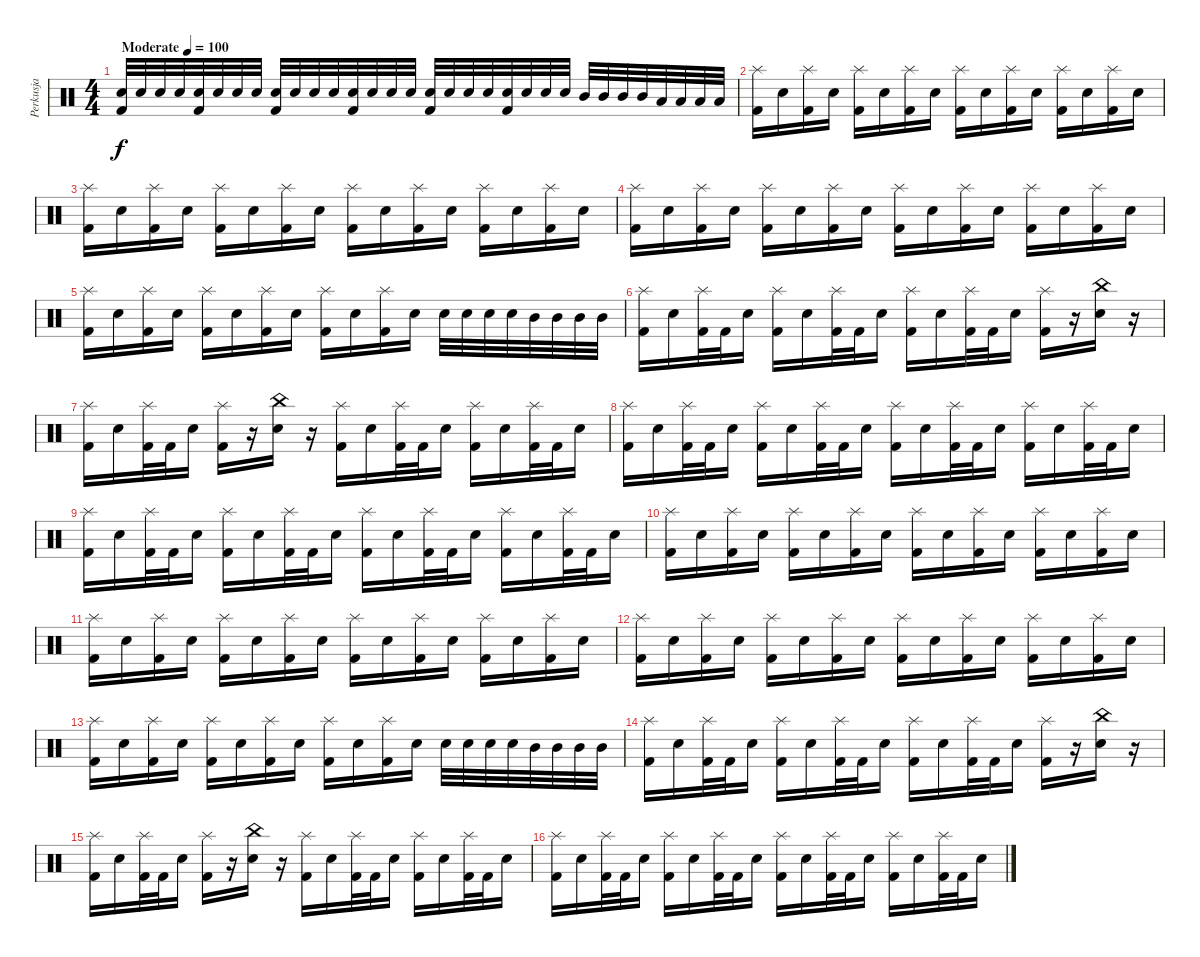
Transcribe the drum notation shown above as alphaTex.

\track ("Perkusja" "Perkusja") {instrument percussion}
\staff {score}
\articulation defaults
\ts (4 4)
\tempo (100 "Moderate")
\clef neutral
\ks c
("Snare (hit) 2" "Kick (hit) 2").32{dy f} "Snare (hit) 2".32 "Snare (hit) 2".32 "Snare (hit) 2".32 ("Snare (hit) 2" "Kick (hit) 2").32 "Snare (hit) 2".32 "Snare (hit) 2".32 "Snare (hit) 2".32 ("Snare (hit) 2" "Kick (hit) 2").32 "Snare (hit) 2".32 "Snare (hit) 2".32 "Snare (hit) 2".32 ("Snare (hit) 2" "Kick (hit) 2").32 "Snare (hit) 2".32 "Snare (hit) 2".32 "Snare (hit) 2".32 ("Snare (hit) 2" "Kick (hit) 2").32 "Snare (hit) 2".32 "Snare (hit) 2".32 "Snare (hit) 2".32 ("Snare (hit) 2" "Kick (hit) 2").32 "Snare (hit) 2".32 "Snare (hit) 2".32 "Snare (hit) 2".32 "Mid Tom (hit)".32 "Mid Tom (hit)".32 "Mid Tom (hit)".32 "Mid Tom (hit)".32 "Low Tom (hit)".32 "Low Tom (hit)".32 "Low Tom (hit)".32 "Low Tom (hit)".32 |
("Splash (hit)" "Kick (hit) 2").16 "Snare (hit) 2".16 ("Splash (hit)" "Kick (hit) 2").16 "Snare (hit) 2".16 ("Splash (hit)" "Kick (hit) 2").16 "Snare (hit) 2".16 ("Splash (hit)" "Kick (hit) 2").16 "Snare (hit) 2".16 ("Splash (hit)" "Kick (hit) 2").16 "Snare (hit) 2".16 ("Splash (hit)" "Kick (hit) 2").16 "Snare (hit) 2".16 ("Splash (hit)" "Kick (hit) 2").16 "Snare (hit) 2".16 ("Splash (hit)" "Kick (hit) 2").16 "Snare (hit) 2".16 |
("Splash (hit)" "Kick (hit) 2").16 "Snare (hit) 2".16 ("Splash (hit)" "Kick (hit) 2").16 "Snare (hit) 2".16 ("Splash (hit)" "Kick (hit) 2").16 "Snare (hit) 2".16 ("Splash (hit)" "Kick (hit) 2").16 "Snare (hit) 2".16 ("Splash (hit)" "Kick (hit) 2").16 "Snare (hit) 2".16 ("Splash (hit)" "Kick (hit) 2").16 "Snare (hit) 2".16 ("Splash (hit)" "Kick (hit) 2").16 "Snare (hit) 2".16 ("Splash (hit)" "Kick (hit) 2").16 "Snare (hit) 2".16 |
("Splash (hit)" "Kick (hit) 2").16 "Snare (hit) 2".16 ("Splash (hit)" "Kick (hit) 2").16 "Snare (hit) 2".16 ("Splash (hit)" "Kick (hit) 2").16 "Snare (hit) 2".16 ("Splash (hit)" "Kick (hit) 2").16 "Snare (hit) 2".16 ("Splash (hit)" "Kick (hit) 2").16 "Snare (hit) 2".16 ("Splash (hit)" "Kick (hit) 2").16 "Snare (hit) 2".16 ("Splash (hit)" "Kick (hit) 2").16 "Snare (hit) 2".16 ("Splash (hit)" "Kick (hit) 2").16 "Snare (hit) 2".16 |
("Splash (hit)" "Kick (hit) 2").16 "Snare (hit) 2".16 ("Splash (hit)" "Kick (hit) 2").16 "Snare (hit) 2".16 ("Splash (hit)" "Kick (hit) 2").16 "Snare (hit) 2".16 ("Splash (hit)" "Kick (hit) 2").16 "Snare (hit) 2".16 ("Splash (hit)" "Kick (hit) 2").16 "Snare (hit) 2".16 ("Splash (hit)" "Kick (hit) 2").16 "Snare (hit) 2".16 "Snare (hit) 2".32 "Snare (hit) 2".32 "Snare (hit) 2".32 "Snare (hit) 2".32 "Mid Tom (hit)".32 "Mid Tom (hit)".32 "Mid Tom (hit)".32 "Mid Tom (hit)".32 |
("Splash (hit)" "Kick (hit) 2").16 "Snare (hit) 2".16 ("Splash (hit)" "Kick (hit) 2").32 "Kick (hit) 2".32 "Snare (hit) 2".16 ("Splash (hit)" "Kick (hit) 2").16 "Snare (hit) 2".16 ("Splash (hit)" "Kick (hit) 2").32 "Kick (hit) 2".32 "Snare (hit) 2".16 ("Splash (hit)" "Kick (hit) 2").16 "Snare (hit) 2".16 ("Splash (hit)" "Kick (hit) 2").32 "Kick (hit) 2".32 "Snare (hit) 2".16 ("Splash (hit)" "Kick (hit) 2").16 r.16 ("China (hit)" "Snare (hit) 2").16 r.16 |
("Splash (hit)" "Kick (hit) 2").16 "Snare (hit) 2".16 ("Splash (hit)" "Kick (hit) 2").32 "Kick (hit) 2".32 "Snare (hit) 2".16 ("Splash (hit)" "Kick (hit) 2").16 r.16 ("China (hit)" "Snare (hit) 2").16 r.16 ("Splash (hit)" "Kick (hit) 2").16 "Snare (hit) 2".16 ("Splash (hit)" "Kick (hit) 2").32 "Kick (hit) 2".32 "Snare (hit) 2".16 ("Splash (hit)" "Kick (hit) 2").16 "Snare (hit) 2".16 ("Splash (hit)" "Kick (hit) 2").32 "Kick (hit) 2".32 "Snare (hit) 2".16 |
("Splash (hit)" "Kick (hit) 2").16 "Snare (hit) 2".16 ("Splash (hit)" "Kick (hit) 2").32 "Kick (hit) 2".32 "Snare (hit) 2".16 ("Splash (hit)" "Kick (hit) 2").16 "Snare (hit) 2".16 ("Splash (hit)" "Kick (hit) 2").32 "Kick (hit) 2".32 "Snare (hit) 2".16 ("Splash (hit)" "Kick (hit) 2").16 "Snare (hit) 2".16 ("Splash (hit)" "Kick (hit) 2").32 "Kick (hit) 2".32 "Snare (hit) 2".16 ("Splash (hit)" "Kick (hit) 2").16 "Snare (hit) 2".16 ("Splash (hit)" "Kick (hit) 2").32 "Kick (hit) 2".32 "Snare (hit) 2".16 |
("Splash (hit)" "Kick (hit) 2").16 "Snare (hit) 2".16 ("Splash (hit)" "Kick (hit) 2").32 "Kick (hit) 2".32 "Snare (hit) 2".16 ("Splash (hit)" "Kick (hit) 2").16 "Snare (hit) 2".16 ("Splash (hit)" "Kick (hit) 2").32 "Kick (hit) 2".32 "Snare (hit) 2".16 ("Splash (hit)" "Kick (hit) 2").16 "Snare (hit) 2".16 ("Splash (hit)" "Kick (hit) 2").32 "Kick (hit) 2".32 "Snare (hit) 2".16 ("Splash (hit)" "Kick (hit) 2").16 "Snare (hit) 2".16 ("Splash (hit)" "Kick (hit) 2").32 "Kick (hit) 2".32 "Snare (hit) 2".16 |
("Splash (hit)" "Kick (hit) 2").16 "Snare (hit) 2".16 ("Splash (hit)" "Kick (hit) 2").16 "Snare (hit) 2".16 ("Splash (hit)" "Kick (hit) 2").16 "Snare (hit) 2".16 ("Splash (hit)" "Kick (hit) 2").16 "Snare (hit) 2".16 ("Splash (hit)" "Kick (hit) 2").16 "Snare (hit) 2".16 ("Splash (hit)" "Kick (hit) 2").16 "Snare (hit) 2".16 ("Splash (hit)" "Kick (hit) 2").16 "Snare (hit) 2".16 ("Splash (hit)" "Kick (hit) 2").16 "Snare (hit) 2".16 |
("Splash (hit)" "Kick (hit) 2").16 "Snare (hit) 2".16 ("Splash (hit)" "Kick (hit) 2").16 "Snare (hit) 2".16 ("Splash (hit)" "Kick (hit) 2").16 "Snare (hit) 2".16 ("Splash (hit)" "Kick (hit) 2").16 "Snare (hit) 2".16 ("Splash (hit)" "Kick (hit) 2").16 "Snare (hit) 2".16 ("Splash (hit)" "Kick (hit) 2").16 "Snare (hit) 2".16 ("Splash (hit)" "Kick (hit) 2").16 "Snare (hit) 2".16 ("Splash (hit)" "Kick (hit) 2").16 "Snare (hit) 2".16 |
("Splash (hit)" "Kick (hit) 2").16 "Snare (hit) 2".16 ("Splash (hit)" "Kick (hit) 2").16 "Snare (hit) 2".16 ("Splash (hit)" "Kick (hit) 2").16 "Snare (hit) 2".16 ("Splash (hit)" "Kick (hit) 2").16 "Snare (hit) 2".16 ("Splash (hit)" "Kick (hit) 2").16 "Snare (hit) 2".16 ("Splash (hit)" "Kick (hit) 2").16 "Snare (hit) 2".16 ("Splash (hit)" "Kick (hit) 2").16 "Snare (hit) 2".16 ("Splash (hit)" "Kick (hit) 2").16 "Snare (hit) 2".16 |
("Splash (hit)" "Kick (hit) 2").16 "Snare (hit) 2".16 ("Splash (hit)" "Kick (hit) 2").16 "Snare (hit) 2".16 ("Splash (hit)" "Kick (hit) 2").16 "Snare (hit) 2".16 ("Splash (hit)" "Kick (hit) 2").16 "Snare (hit) 2".16 ("Splash (hit)" "Kick (hit) 2").16 "Snare (hit) 2".16 ("Splash (hit)" "Kick (hit) 2").16 "Snare (hit) 2".16 "Snare (hit) 2".32 "Snare (hit) 2".32 "Snare (hit) 2".32 "Snare (hit) 2".32 "Mid Tom (hit)".32 "Mid Tom (hit)".32 "Mid Tom (hit)".32 "Mid Tom (hit)".32 |
("Splash (hit)" "Kick (hit) 2").16 "Snare (hit) 2".16 ("Splash (hit)" "Kick (hit) 2").32 "Kick (hit) 2".32 "Snare (hit) 2".16 ("Splash (hit)" "Kick (hit) 2").16 "Snare (hit) 2".16 ("Splash (hit)" "Kick (hit) 2").32 "Kick (hit) 2".32 "Snare (hit) 2".16 ("Splash (hit)" "Kick (hit) 2").16 "Snare (hit) 2".16 ("Splash (hit)" "Kick (hit) 2").32 "Kick (hit) 2".32 "Snare (hit) 2".16 ("Splash (hit)" "Kick (hit) 2").16 r.16 ("China (hit)" "Snare (hit) 2").16 r.16 |
("Splash (hit)" "Kick (hit) 2").16 "Snare (hit) 2".16 ("Splash (hit)" "Kick (hit) 2").32 "Kick (hit) 2".32 "Snare (hit) 2".16 ("Splash (hit)" "Kick (hit) 2").16 r.16 ("China (hit)" "Snare (hit) 2").16 r.16 ("Splash (hit)" "Kick (hit) 2").16 "Snare (hit) 2".16 ("Splash (hit)" "Kick (hit) 2").32 "Kick (hit) 2".32 "Snare (hit) 2".16 ("Splash (hit)" "Kick (hit) 2").16 "Snare (hit) 2".16 ("Splash (hit)" "Kick (hit) 2").32 "Kick (hit) 2".32 "Snare (hit) 2".16 |
("Splash (hit)" "Kick (hit) 2").16 "Snare (hit) 2".16 ("Splash (hit)" "Kick (hit) 2").32 "Kick (hit) 2".32 "Snare (hit) 2".16 ("Splash (hit)" "Kick (hit) 2").16 "Snare (hit) 2".16 ("Splash (hit)" "Kick (hit) 2").32 "Kick (hit) 2".32 "Snare (hit) 2".16 ("Splash (hit)" "Kick (hit) 2").16 "Snare (hit) 2".16 ("Splash (hit)" "Kick (hit) 2").32 "Kick (hit) 2".32 "Snare (hit) 2".16 ("Splash (hit)" "Kick (hit) 2").16 "Snare (hit) 2".16 ("Splash (hit)" "Kick (hit) 2").32 "Kick (hit) 2".32 "Snare (hit) 2".16
